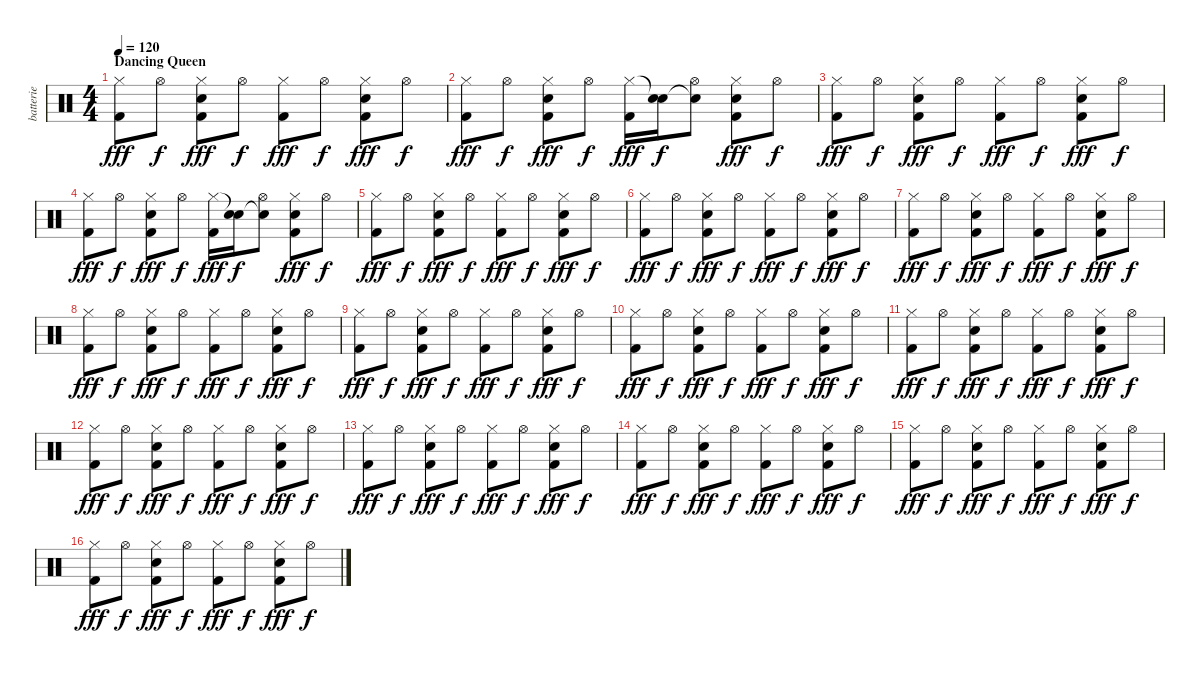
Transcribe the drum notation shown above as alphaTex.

\track ("batterie" "batterie") {instrument percussion}
\staff {score}
\articulation defaults
\ts (4 4)
\section ("" "Dancing Queen")
\tempo 120
\tempo 110
\tempo 120
\clef neutral
\ks c
("Hi-Hat (closed)" "Kick (hit) 2").8{dy fff} "Hi-Hat (open)".8{dy f} ("Hi-Hat (closed)" "Electric Snare (hit)" "Kick (hit) 2").8{dy fff} "Hi-Hat (open)".8{dy f} ("Hi-Hat (closed)" "Kick (hit) 2").8{dy fff} "Hi-Hat (open)".8{dy f} ("Hi-Hat (closed)" "Electric Snare (hit)" "Kick (hit) 2").8{dy fff} "Hi-Hat (open)".8{dy f} |
("Hi-Hat (closed)" "Kick (hit) 2").8{dy fff} "Hi-Hat (open)".8{dy f} ("Hi-Hat (closed)" "Electric Snare (hit)" "Kick (hit) 2").8{dy fff} "Hi-Hat (open)".8{dy f} ("Hi-Hat (closed)" "Kick (hit) 2").16{dy fff} ("Snare (hit)"{t} "Electric Snare (hit)").16{dy f} ("Hi-Hat (open)" "Electric Snare (hit)"{t}).8 ("Hi-Hat (closed)" "Electric Snare (hit)" "Kick (hit) 2").8{dy fff} "Hi-Hat (open)".8{dy f} |
("Hi-Hat (closed)" "Kick (hit) 2").8{dy fff} "Hi-Hat (open)".8{dy f} ("Hi-Hat (closed)" "Electric Snare (hit)" "Kick (hit) 2").8{dy fff} "Hi-Hat (open)".8{dy f} ("Hi-Hat (closed)" "Kick (hit) 2").8{dy fff} "Hi-Hat (open)".8{dy f} ("Hi-Hat (closed)" "Electric Snare (hit)" "Kick (hit) 2").8{dy fff} "Hi-Hat (open)".8{dy f} |
("Hi-Hat (closed)" "Kick (hit) 2").8{dy fff} "Hi-Hat (open)".8{dy f} ("Hi-Hat (closed)" "Electric Snare (hit)" "Kick (hit) 2").8{dy fff} "Hi-Hat (open)".8{dy f} ("Hi-Hat (closed)" "Kick (hit) 2").16{dy fff} ("Snare (hit)"{t} "Electric Snare (hit)").16{dy f} ("Hi-Hat (open)" "Electric Snare (hit)"{t}).8 ("Hi-Hat (closed)" "Electric Snare (hit)" "Kick (hit) 2").8{dy fff} "Hi-Hat (open)".8{dy f} |
("Hi-Hat (closed)" "Kick (hit) 2").8{dy fff} "Hi-Hat (open)".8{dy f} ("Hi-Hat (closed)" "Electric Snare (hit)" "Kick (hit) 2").8{dy fff} "Hi-Hat (open)".8{dy f} ("Hi-Hat (closed)" "Kick (hit) 2").8{dy fff} "Hi-Hat (open)".8{dy f} ("Hi-Hat (closed)" "Electric Snare (hit)" "Kick (hit) 2").8{dy fff} "Hi-Hat (open)".8{dy f} |
("Hi-Hat (closed)" "Kick (hit) 2").8{dy fff} "Hi-Hat (open)".8{dy f} ("Hi-Hat (closed)" "Electric Snare (hit)" "Kick (hit) 2").8{dy fff} "Hi-Hat (open)".8{dy f} ("Hi-Hat (closed)" "Kick (hit) 2").8{dy fff} "Hi-Hat (open)".8{dy f} ("Hi-Hat (closed)" "Electric Snare (hit)" "Kick (hit) 2").8{dy fff} "Hi-Hat (open)".8{dy f} |
("Hi-Hat (closed)" "Kick (hit) 2").8{dy fff} "Hi-Hat (open)".8{dy f} ("Hi-Hat (closed)" "Electric Snare (hit)" "Kick (hit) 2").8{dy fff} "Hi-Hat (open)".8{dy f} ("Hi-Hat (closed)" "Kick (hit) 2").8{dy fff} "Hi-Hat (open)".8{dy f} ("Hi-Hat (closed)" "Electric Snare (hit)" "Kick (hit) 2").8{dy fff} "Hi-Hat (open)".8{dy f} |
("Hi-Hat (closed)" "Kick (hit) 2").8{dy fff} "Hi-Hat (open)".8{dy f} ("Hi-Hat (closed)" "Electric Snare (hit)" "Kick (hit) 2").8{dy fff} "Hi-Hat (open)".8{dy f} ("Hi-Hat (closed)" "Kick (hit) 2").8{dy fff} "Hi-Hat (open)".8{dy f} ("Hi-Hat (closed)" "Electric Snare (hit)" "Kick (hit) 2").8{dy fff} "Hi-Hat (open)".8{dy f} |
("Hi-Hat (closed)" "Kick (hit) 2").8{dy fff} "Hi-Hat (open)".8{dy f} ("Hi-Hat (closed)" "Electric Snare (hit)" "Kick (hit) 2").8{dy fff} "Hi-Hat (open)".8{dy f} ("Hi-Hat (closed)" "Kick (hit) 2").8{dy fff} "Hi-Hat (open)".8{dy f} ("Hi-Hat (closed)" "Electric Snare (hit)" "Kick (hit) 2").8{dy fff} "Hi-Hat (open)".8{dy f} |
("Hi-Hat (closed)" "Kick (hit) 2").8{dy fff} "Hi-Hat (open)".8{dy f} ("Hi-Hat (closed)" "Electric Snare (hit)" "Kick (hit) 2").8{dy fff} "Hi-Hat (open)".8{dy f} ("Hi-Hat (closed)" "Kick (hit) 2").8{dy fff} "Hi-Hat (open)".8{dy f} ("Hi-Hat (closed)" "Electric Snare (hit)" "Kick (hit) 2").8{dy fff} "Hi-Hat (open)".8{dy f} |
("Hi-Hat (closed)" "Kick (hit) 2").8{dy fff} "Hi-Hat (open)".8{dy f} ("Hi-Hat (closed)" "Electric Snare (hit)" "Kick (hit) 2").8{dy fff} "Hi-Hat (open)".8{dy f} ("Hi-Hat (closed)" "Kick (hit) 2").8{dy fff} "Hi-Hat (open)".8{dy f} ("Hi-Hat (closed)" "Electric Snare (hit)" "Kick (hit) 2").8{dy fff} "Hi-Hat (open)".8{dy f} |
("Hi-Hat (closed)" "Kick (hit) 2").8{dy fff} "Hi-Hat (open)".8{dy f} ("Hi-Hat (closed)" "Electric Snare (hit)" "Kick (hit) 2").8{dy fff} "Hi-Hat (open)".8{dy f} ("Hi-Hat (closed)" "Kick (hit) 2").8{dy fff} "Hi-Hat (open)".8{dy f} ("Hi-Hat (closed)" "Electric Snare (hit)" "Kick (hit) 2").8{dy fff} "Hi-Hat (open)".8{dy f} |
("Hi-Hat (closed)" "Kick (hit) 2").8{dy fff} "Hi-Hat (open)".8{dy f} ("Hi-Hat (closed)" "Electric Snare (hit)" "Kick (hit) 2").8{dy fff} "Hi-Hat (open)".8{dy f} ("Hi-Hat (closed)" "Kick (hit) 2").8{dy fff} "Hi-Hat (open)".8{dy f} ("Hi-Hat (closed)" "Electric Snare (hit)" "Kick (hit) 2").8{dy fff} "Hi-Hat (open)".8{dy f} |
("Hi-Hat (closed)" "Kick (hit) 2").8{dy fff} "Hi-Hat (open)".8{dy f} ("Hi-Hat (closed)" "Electric Snare (hit)" "Kick (hit) 2").8{dy fff} "Hi-Hat (open)".8{dy f} ("Hi-Hat (closed)" "Kick (hit) 2").8{dy fff} "Hi-Hat (open)".8{dy f} ("Hi-Hat (closed)" "Electric Snare (hit)" "Kick (hit) 2").8{dy fff} "Hi-Hat (open)".8{dy f} |
("Hi-Hat (closed)" "Kick (hit) 2").8{dy fff} "Hi-Hat (open)".8{dy f} ("Hi-Hat (closed)" "Electric Snare (hit)" "Kick (hit) 2").8{dy fff} "Hi-Hat (open)".8{dy f} ("Hi-Hat (closed)" "Kick (hit) 2").8{dy fff} "Hi-Hat (open)".8{dy f} ("Hi-Hat (closed)" "Electric Snare (hit)" "Kick (hit) 2").8{dy fff} "Hi-Hat (open)".8{dy f} |
("Hi-Hat (closed)" "Kick (hit) 2").8{dy fff} "Hi-Hat (open)".8{dy f} ("Hi-Hat (closed)" "Electric Snare (hit)" "Kick (hit) 2").8{dy fff} "Hi-Hat (open)".8{dy f} ("Hi-Hat (closed)" "Kick (hit) 2").8{dy fff} "Hi-Hat (open)".8{dy f} ("Hi-Hat (closed)" "Electric Snare (hit)" "Kick (hit) 2").8{dy fff} "Hi-Hat (open)".8{dy f}
